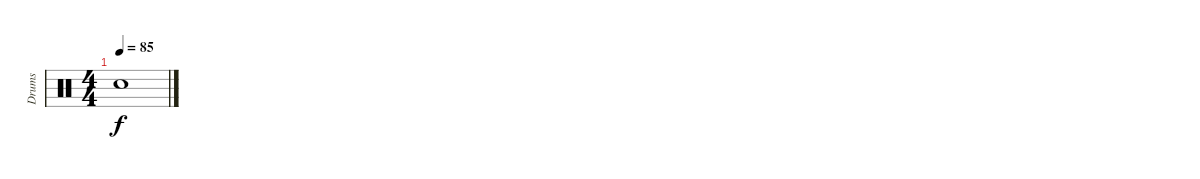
\track ("Drums" "Drums") {instrument percussion}
\staff {score}
\articulation defaults
\ts (4 4)
\tempo 85
\clef neutral
\ks c "Snare (hit)"{t}.1{dy f}
